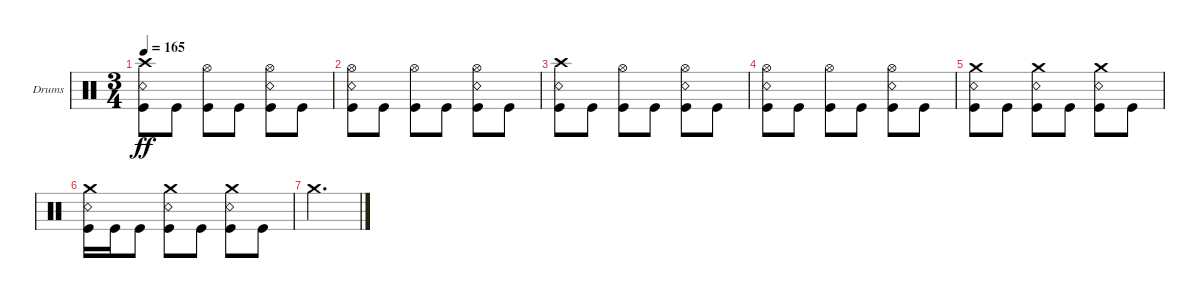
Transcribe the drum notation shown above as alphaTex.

\bracketExtendMode groupsimilarinstruments
\firstSystemTrackNameOrientation horizontal
\otherSystemsTrackNameOrientation horizontal
\track ("Kaleb - Drums" "Drums") {instrument percussion}
\staff {score}
\articulation defaults
\ts (3 4)
\tempo 165
\clef neutral
\ks c
("Kick (hit)" "Snare (rim shot)" "Crash high (hit)").8{dy ff} "Kick (hit)".8 ("Kick (hit)" "Hi-Hat (open)").8 "Kick (hit)".8 ("Kick (hit)" "Snare (rim shot)" "Hi-Hat (open)").8 "Kick (hit)".8 |
("Kick (hit)" "Snare (rim shot)" "Hi-Hat (open)").8 "Kick (hit)".8 ("Kick (hit)" "Hi-Hat (open)").8 "Kick (hit)".8 ("Kick (hit)" "Snare (rim shot)" "Hi-Hat (open)").8 "Kick (hit)".8 |
("Kick (hit)" "Snare (rim shot)" "Crash high (hit)").8 "Kick (hit)".8 ("Kick (hit)" "Hi-Hat (open)").8 "Kick (hit)".8 ("Kick (hit)" "Snare (rim shot)" "Hi-Hat (open)").8 "Kick (hit)".8 |
("Kick (hit)" "Snare (rim shot)" "Hi-Hat (open)").8 "Kick (hit)".8 ("Kick (hit)" "Hi-Hat (open)").8 "Kick (hit)".8 ("Kick (hit)" "Snare (rim shot)" "Hi-Hat (open)").8 "Kick (hit)".8 |
("Kick (hit)" "Snare (rim shot)" "Crash medium (hit)").8 "Kick (hit)".8 ("Kick (hit)" "Snare (rim shot)" "Crash medium (hit)").8 "Kick (hit)".8 ("Kick (hit)" "Snare (rim shot)" "Crash medium (hit)").8 "Kick (hit)".8 |
("Kick (hit)" "Snare (rim shot)" "Crash medium (hit)").16 "Kick (hit)".16 "Kick (hit)".8 ("Kick (hit)" "Snare (rim shot)" "Crash medium (hit)").8 "Kick (hit)".8 ("Kick (hit)" "Snare (rim shot)" "Crash medium (hit)").8 "Kick (hit)".8 |
"Crash medium (hit)".2{d}
